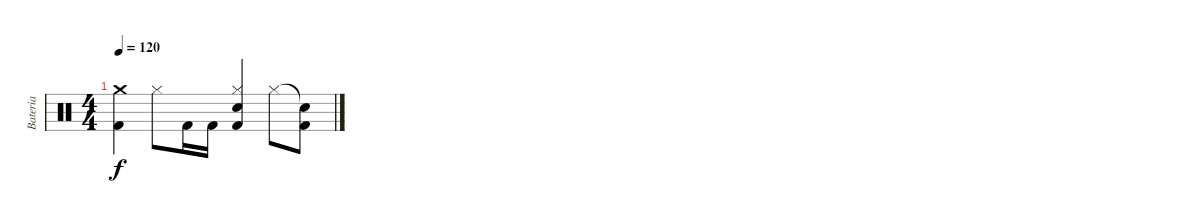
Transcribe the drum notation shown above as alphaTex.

\track ("Bateria" "Bateria") {instrument percussion}
\staff {score}
\articulation defaults
\ts (4 4)
\tempo 120
\clef neutral
\ks c
("Crash medium (hit)" "Kick (hit) 2").4{dy f} "Hi-Hat (closed)".8 "Kick (hit) 2".16 "Kick (hit) 2".16 ("Hi-Hat (closed)" "Electric Snare (hit)" "Kick (hit) 2").4 "Hi-Hat (closed)".8 ("Snare (hit)"{t} "Kick (hit) 2").8
